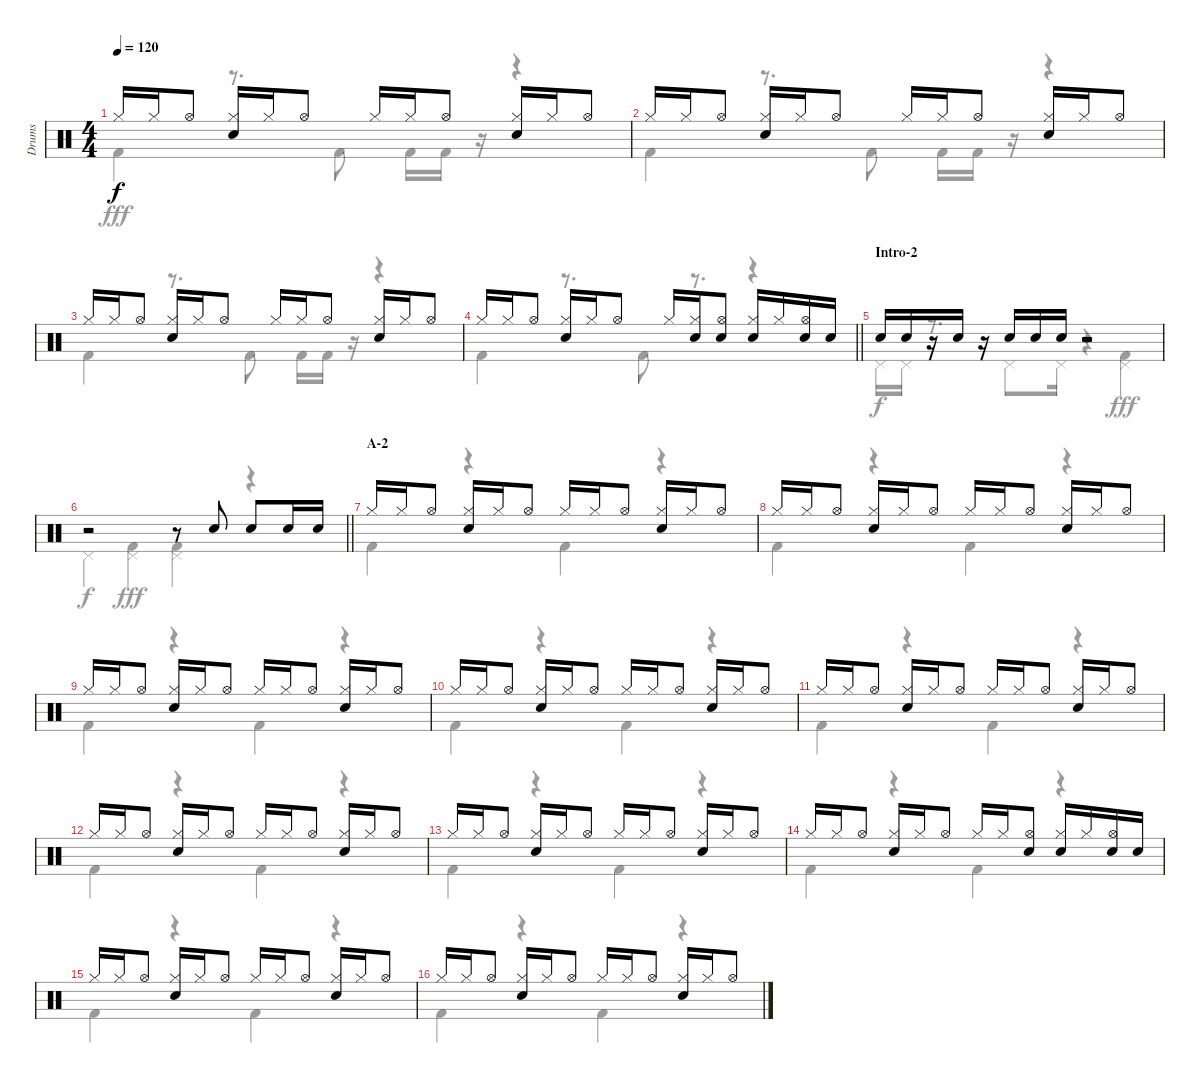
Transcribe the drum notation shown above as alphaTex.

\track ("Drums" "Drums") {instrument percussion}
\staff {score}
\articulation defaults
\voice
\ts (4 4)
\tempo 120
\clef neutral
\ks c "Hi-Hat (closed)".16{dy f} "Hi-Hat (closed)".16 "Hi-Hat (open)".8
("Hi-Hat (closed)" "Electric Snare (hit)").16 "Hi-Hat (closed)".16 "Hi-Hat (open)".8 "Hi-Hat (closed)".16 "Hi-Hat (closed)".16 "Hi-Hat (open)".8 ("Hi-Hat (closed)" "Electric Snare (hit)").16 "Hi-Hat (closed)".16 "Hi-Hat (open)".8 |
"Hi-Hat (closed)".16 "Hi-Hat (closed)".16 "Hi-Hat (open)".8 ("Hi-Hat (closed)" "Electric Snare (hit)").16 "Hi-Hat (closed)".16 "Hi-Hat (open)".8 "Hi-Hat (closed)".16 "Hi-Hat (closed)".16 "Hi-Hat (open)".8 ("Hi-Hat (closed)" "Electric Snare (hit)").16 "Hi-Hat (closed)".16 "Hi-Hat (open)".8 |
"Hi-Hat (closed)".16 "Hi-Hat (closed)".16 "Hi-Hat (open)".8 ("Hi-Hat (closed)" "Electric Snare (hit)").16 "Hi-Hat (closed)".16 "Hi-Hat (open)".8 "Hi-Hat (closed)".16 "Hi-Hat (closed)".16 "Hi-Hat (open)".8 ("Hi-Hat (closed)" "Electric Snare (hit)").16 "Hi-Hat (closed)".16 "Hi-Hat (open)".8 |
\barLineRight lightlight "Hi-Hat (closed)".16 "Hi-Hat (closed)".16 "Hi-Hat (open)".8
("Hi-Hat (closed)" "Electric Snare (hit)").16 "Hi-Hat (closed)".16 "Hi-Hat (open)".8 "Hi-Hat (closed)".16 ("Hi-Hat (closed)" "Electric Snare (hit)").16 ("Hi-Hat (open)" "Electric Snare (hit)").8 ("Hi-Hat (closed)" "Electric Snare (hit)").16 "Hi-Hat (closed)".16 ("Hi-Hat (open)" "Electric Snare (hit)").16 "Electric Snare (hit)".16 |
\section ("" "Intro-2")
"Electric Snare (hit)".16 "Electric Snare (hit)".16 r.16 "Electric Snare (hit)".16 r.16 "Electric Snare (hit)".16 "Electric Snare (hit)".16 "Electric Snare (hit)".16 r.2 |
\barLineRight lightlight
r.2 r.8 "Electric Snare (hit)".8 "Electric Snare (hit)".8 "Electric Snare (hit)".16 "Electric Snare (hit)".16 |
\section ("" "A-2")
"Hi-Hat (closed)".16 "Hi-Hat (closed)".16 "Hi-Hat (open)".8 ("Hi-Hat (closed)" "Electric Snare (hit)").16 "Hi-Hat (closed)".16 "Hi-Hat (open)".8 "Hi-Hat (closed)".16 "Hi-Hat (closed)".16 "Hi-Hat (open)".8 ("Hi-Hat (closed)" "Electric Snare (hit)").16 "Hi-Hat (closed)".16 "Hi-Hat (open)".8 |
"Hi-Hat (closed)".16 "Hi-Hat (closed)".16 "Hi-Hat (open)".8 ("Hi-Hat (closed)" "Electric Snare (hit)").16 "Hi-Hat (closed)".16 "Hi-Hat (open)".8 "Hi-Hat (closed)".16 "Hi-Hat (closed)".16 "Hi-Hat (open)".8 ("Hi-Hat (closed)" "Electric Snare (hit)").16 "Hi-Hat (closed)".16 "Hi-Hat (open)".8 |
"Hi-Hat (closed)".16 "Hi-Hat (closed)".16 "Hi-Hat (open)".8 ("Hi-Hat (closed)" "Electric Snare (hit)").16 "Hi-Hat (closed)".16 "Hi-Hat (open)".8 "Hi-Hat (closed)".16 "Hi-Hat (closed)".16 "Hi-Hat (open)".8 ("Hi-Hat (closed)" "Electric Snare (hit)").16 "Hi-Hat (closed)".16 "Hi-Hat (open)".8 |
"Hi-Hat (closed)".16 "Hi-Hat (closed)".16 "Hi-Hat (open)".8 ("Hi-Hat (closed)" "Electric Snare (hit)").16 "Hi-Hat (closed)".16 "Hi-Hat (open)".8 "Hi-Hat (closed)".16 "Hi-Hat (closed)".16 "Hi-Hat (open)".8 ("Hi-Hat (closed)" "Electric Snare (hit)").16 "Hi-Hat (closed)".16 "Hi-Hat (open)".8 |
"Hi-Hat (closed)".16 "Hi-Hat (closed)".16 "Hi-Hat (open)".8 ("Hi-Hat (closed)" "Electric Snare (hit)").16 "Hi-Hat (closed)".16 "Hi-Hat (open)".8 "Hi-Hat (closed)".16 "Hi-Hat (closed)".16 "Hi-Hat (open)".8 ("Hi-Hat (closed)" "Electric Snare (hit)").16 "Hi-Hat (closed)".16 "Hi-Hat (open)".8 |
"Hi-Hat (closed)".16 "Hi-Hat (closed)".16 "Hi-Hat (open)".8 ("Hi-Hat (closed)" "Electric Snare (hit)").16 "Hi-Hat (closed)".16 "Hi-Hat (open)".8 "Hi-Hat (closed)".16 "Hi-Hat (closed)".16 "Hi-Hat (open)".8 ("Hi-Hat (closed)" "Electric Snare (hit)").16 "Hi-Hat (closed)".16 "Hi-Hat (open)".8 |
"Hi-Hat (closed)".16 "Hi-Hat (closed)".16 "Hi-Hat (open)".8 ("Hi-Hat (closed)" "Electric Snare (hit)").16 "Hi-Hat (closed)".16 "Hi-Hat (open)".8 "Hi-Hat (closed)".16 "Hi-Hat (closed)".16 "Hi-Hat (open)".8 ("Hi-Hat (closed)" "Electric Snare (hit)").16 "Hi-Hat (closed)".16 "Hi-Hat (open)".8 |
"Hi-Hat (closed)".16 "Hi-Hat (closed)".16 "Hi-Hat (open)".8 ("Hi-Hat (closed)" "Electric Snare (hit)").16 "Hi-Hat (closed)".16 "Hi-Hat (open)".8 "Hi-Hat (closed)".16 "Hi-Hat (closed)".16 ("Hi-Hat (open)" "Electric Snare (hit)").8 ("Hi-Hat (closed)" "Electric Snare (hit)").16 "Hi-Hat (closed)".16 ("Hi-Hat (open)" "Electric Snare (hit)").16 "Electric Snare (hit)".16 |
"Hi-Hat (closed)".16 "Hi-Hat (closed)".16 "Hi-Hat (open)".8 ("Hi-Hat (closed)" "Electric Snare (hit)").16 "Hi-Hat (closed)".16 "Hi-Hat (open)".8 "Hi-Hat (closed)".16 "Hi-Hat (closed)".16 "Hi-Hat (open)".8 ("Hi-Hat (closed)" "Electric Snare (hit)").16 "Hi-Hat (closed)".16 "Hi-Hat (open)".8 |
"Hi-Hat (closed)".16 "Hi-Hat (closed)".16 "Hi-Hat (open)".8 ("Hi-Hat (closed)" "Electric Snare (hit)").16 "Hi-Hat (closed)".16 "Hi-Hat (open)".8 "Hi-Hat (closed)".16 "Hi-Hat (closed)".16 "Hi-Hat (open)".8 ("Hi-Hat (closed)" "Electric Snare (hit)").16 "Hi-Hat (closed)".16 "Hi-Hat (open)".8
\voice
\clef neutral
\ottava regular
\simile none
\ks c "Kick (hit) 2".4{dy fff}
r.8{d} "Kick (hit) 2".8 "Kick (hit) 2".16 "Kick (hit) 2".16 r.16 r.4 |
"Kick (hit) 2".4 r.8{d} "Kick (hit) 2".8 "Kick (hit) 2".16 "Kick (hit) 2".16 r.16 r.4 |
"Kick (hit) 2".4 r.8{d} "Kick (hit) 2".8 "Kick (hit) 2".16 "Kick (hit) 2".16 r.16 r.4 |
\barLineRight lightlight "Kick (hit) 2".4
r.8{d} "Kick (hit) 2".8 r.8{d} r.4 |
"Pedal Hi-Hat (hit)".16{dy f} "Pedal Hi-Hat (hit)".16 r.8{d} "Pedal Hi-Hat (hit)".8 "Pedal Hi-Hat (hit)".16 r.4 ("Pedal Hi-Hat (hit)" "Kick (hit) 2").4{dy fff} |
\barLineRight lightlight "Pedal Hi-Hat (hit)".4{dy f}
("Pedal Hi-Hat (hit)" "Kick (hit) 2").4{dy fff} ("Pedal Hi-Hat (hit)" "Kick (hit) 2").4 r.4 |
"Kick (hit) 2".4 r.4 "Kick (hit) 2".4 r.4 |
"Kick (hit) 2".4 r.4 "Kick (hit) 2".4 r.4 |
"Kick (hit) 2".4 r.4 "Kick (hit) 2".4 r.4 |
"Kick (hit) 2".4 r.4 "Kick (hit) 2".4 r.4 |
"Kick (hit) 2".4 r.4 "Kick (hit) 2".4 r.4 |
"Kick (hit) 2".4 r.4 "Kick (hit) 2".4 r.4 |
"Kick (hit) 2".4 r.4 "Kick (hit) 2".4 r.4 |
"Kick (hit) 2".4 r.4 "Kick (hit) 2".4 r.4 |
"Kick (hit) 2".4 r.4 "Kick (hit) 2".4 r.4 |
"Kick (hit) 2".4 r.4 "Kick (hit) 2".4 r.4
